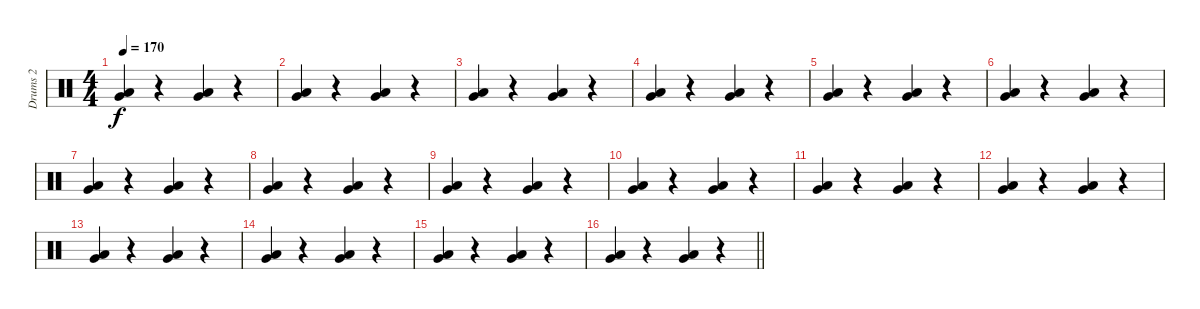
\track ("Drums 2" "Drums 2") {instrument percussion}
\staff {score}
\articulation defaults
\ts (4 4)
\tempo 170
\clef neutral
\ks c
("Very Low Tom (hit)" "Low Tom (hit)").4{dy f} r.4 ("Very Low Tom (hit)" "Low Tom (hit)").4 r.4 |
("Very Low Tom (hit)" "Low Tom (hit)").4 r.4 ("Very Low Tom (hit)" "Low Tom (hit)").4 r.4 |
("Very Low Tom (hit)" "Low Tom (hit)").4 r.4 ("Very Low Tom (hit)" "Low Tom (hit)").4 r.4 |
("Very Low Tom (hit)" "Low Tom (hit)").4 r.4 ("Very Low Tom (hit)" "Low Tom (hit)").4 r.4 |
("Very Low Tom (hit)" "Low Tom (hit)").4 r.4 ("Very Low Tom (hit)" "Low Tom (hit)").4 r.4 |
("Very Low Tom (hit)" "Low Tom (hit)").4 r.4 ("Very Low Tom (hit)" "Low Tom (hit)").4 r.4 |
("Very Low Tom (hit)" "Low Tom (hit)").4 r.4 ("Very Low Tom (hit)" "Low Tom (hit)").4 r.4 |
("Very Low Tom (hit)" "Low Tom (hit)").4 r.4 ("Very Low Tom (hit)" "Low Tom (hit)").4 r.4 |
("Very Low Tom (hit)" "Low Tom (hit)").4 r.4 ("Very Low Tom (hit)" "Low Tom (hit)").4 r.4 |
("Very Low Tom (hit)" "Low Tom (hit)").4 r.4 ("Very Low Tom (hit)" "Low Tom (hit)").4 r.4 |
("Very Low Tom (hit)" "Low Tom (hit)").4 r.4 ("Very Low Tom (hit)" "Low Tom (hit)").4 r.4 |
("Very Low Tom (hit)" "Low Tom (hit)").4 r.4 ("Very Low Tom (hit)" "Low Tom (hit)").4 r.4 |
("Very Low Tom (hit)" "Low Tom (hit)").4 r.4 ("Very Low Tom (hit)" "Low Tom (hit)").4 r.4 |
("Very Low Tom (hit)" "Low Tom (hit)").4 r.4 ("Very Low Tom (hit)" "Low Tom (hit)").4 r.4 |
("Very Low Tom (hit)" "Low Tom (hit)").4 r.4 ("Very Low Tom (hit)" "Low Tom (hit)").4 r.4 |
\barLineRight lightlight
("Very Low Tom (hit)" "Low Tom (hit)").4 r.4 ("Very Low Tom (hit)" "Low Tom (hit)").4 r.4
